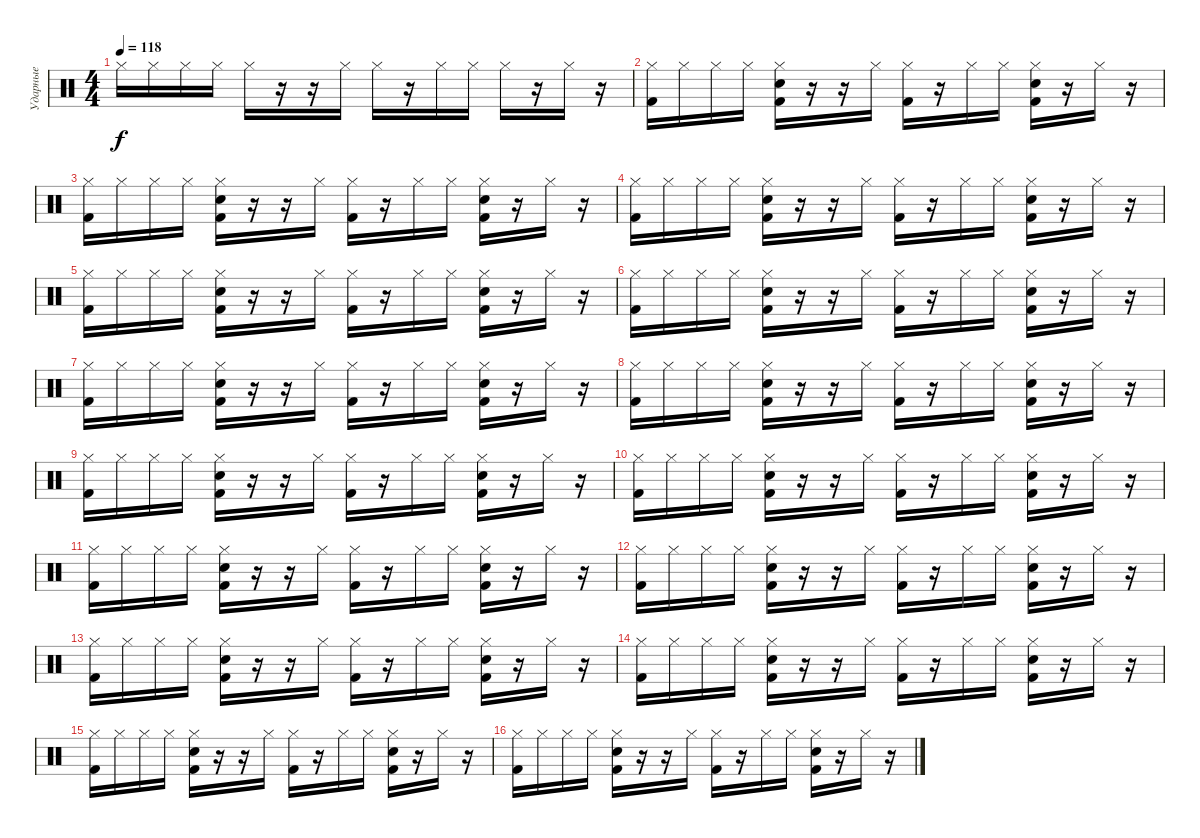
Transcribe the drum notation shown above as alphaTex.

\track ("Ударные" "Ударные") {instrument percussion}
\staff {score}
\articulation defaults
\ts (4 4)
\tempo 118
\clef neutral
\ks c "Hi-Hat (closed)".16{dy f} "Hi-Hat (closed)".16 "Hi-Hat (closed)".16 "Hi-Hat (closed)".16 "Hi-Hat (closed)".16
r.16 r.16 "Hi-Hat (closed)".16 "Hi-Hat (closed)".16 r.16 "Hi-Hat (closed)".16 "Hi-Hat (closed)".16 "Hi-Hat (closed)".16 r.16 "Hi-Hat (closed)".16 r.16 |
("Hi-Hat (closed)" "Kick (hit) 2").16 "Hi-Hat (closed)".16 "Hi-Hat (closed)".16 "Hi-Hat (closed)".16 ("Hi-Hat (closed)" "Kick (hit) 2" "Snare (hit) 2").16 r.16 r.16 "Hi-Hat (closed)".16 ("Hi-Hat (closed)" "Kick (hit) 2").16 r.16 "Hi-Hat (closed)".16 "Hi-Hat (closed)".16 ("Hi-Hat (closed)" "Kick (hit) 2" "Snare (hit) 2").16 r.16 "Hi-Hat (closed)".16 r.16 |
("Hi-Hat (closed)" "Kick (hit) 2").16 "Hi-Hat (closed)".16 "Hi-Hat (closed)".16 "Hi-Hat (closed)".16 ("Hi-Hat (closed)" "Kick (hit) 2" "Snare (hit) 2").16 r.16 r.16 "Hi-Hat (closed)".16 ("Hi-Hat (closed)" "Kick (hit) 2").16 r.16 "Hi-Hat (closed)".16 "Hi-Hat (closed)".16 ("Hi-Hat (closed)" "Kick (hit) 2" "Snare (hit) 2").16 r.16 "Hi-Hat (closed)".16 r.16 |
("Hi-Hat (closed)" "Kick (hit) 2").16 "Hi-Hat (closed)".16 "Hi-Hat (closed)".16 "Hi-Hat (closed)".16 ("Hi-Hat (closed)" "Kick (hit) 2" "Snare (hit) 2").16 r.16 r.16 "Hi-Hat (closed)".16 ("Hi-Hat (closed)" "Kick (hit) 2").16 r.16 "Hi-Hat (closed)".16 "Hi-Hat (closed)".16 ("Hi-Hat (closed)" "Kick (hit) 2" "Snare (hit) 2").16 r.16 "Hi-Hat (closed)".16 r.16 |
("Hi-Hat (closed)" "Kick (hit) 2").16 "Hi-Hat (closed)".16 "Hi-Hat (closed)".16 "Hi-Hat (closed)".16 ("Hi-Hat (closed)" "Kick (hit) 2" "Snare (hit) 2").16 r.16 r.16 "Hi-Hat (closed)".16 ("Hi-Hat (closed)" "Kick (hit) 2").16 r.16 "Hi-Hat (closed)".16 "Hi-Hat (closed)".16 ("Hi-Hat (closed)" "Kick (hit) 2" "Snare (hit) 2").16 r.16 "Hi-Hat (closed)".16 r.16 |
("Hi-Hat (closed)" "Kick (hit) 2").16 "Hi-Hat (closed)".16 "Hi-Hat (closed)".16 "Hi-Hat (closed)".16 ("Hi-Hat (closed)" "Kick (hit) 2" "Snare (hit) 2").16 r.16 r.16 "Hi-Hat (closed)".16 ("Hi-Hat (closed)" "Kick (hit) 2").16 r.16 "Hi-Hat (closed)".16 "Hi-Hat (closed)".16 ("Hi-Hat (closed)" "Kick (hit) 2" "Snare (hit) 2").16 r.16 "Hi-Hat (closed)".16 r.16 |
("Hi-Hat (closed)" "Kick (hit) 2").16 "Hi-Hat (closed)".16 "Hi-Hat (closed)".16 "Hi-Hat (closed)".16 ("Hi-Hat (closed)" "Kick (hit) 2" "Snare (hit) 2").16 r.16 r.16 "Hi-Hat (closed)".16 ("Hi-Hat (closed)" "Kick (hit) 2").16 r.16 "Hi-Hat (closed)".16 "Hi-Hat (closed)".16 ("Hi-Hat (closed)" "Kick (hit) 2" "Snare (hit) 2").16 r.16 "Hi-Hat (closed)".16 r.16 |
("Hi-Hat (closed)" "Kick (hit) 2").16 "Hi-Hat (closed)".16 "Hi-Hat (closed)".16 "Hi-Hat (closed)".16 ("Hi-Hat (closed)" "Kick (hit) 2" "Snare (hit) 2").16 r.16 r.16 "Hi-Hat (closed)".16 ("Hi-Hat (closed)" "Kick (hit) 2").16 r.16 "Hi-Hat (closed)".16 "Hi-Hat (closed)".16 ("Hi-Hat (closed)" "Kick (hit) 2" "Snare (hit) 2").16 r.16 "Hi-Hat (closed)".16 r.16 |
("Hi-Hat (closed)" "Kick (hit) 2").16 "Hi-Hat (closed)".16 "Hi-Hat (closed)".16 "Hi-Hat (closed)".16 ("Hi-Hat (closed)" "Kick (hit) 2" "Snare (hit) 2").16 r.16 r.16 "Hi-Hat (closed)".16 ("Hi-Hat (closed)" "Kick (hit) 2").16 r.16 "Hi-Hat (closed)".16 "Hi-Hat (closed)".16 ("Hi-Hat (closed)" "Kick (hit) 2" "Snare (hit) 2").16 r.16 "Hi-Hat (closed)".16 r.16 |
("Hi-Hat (closed)" "Kick (hit) 2").16 "Hi-Hat (closed)".16 "Hi-Hat (closed)".16 "Hi-Hat (closed)".16 ("Hi-Hat (closed)" "Kick (hit) 2" "Snare (hit) 2").16 r.16 r.16 "Hi-Hat (closed)".16 ("Hi-Hat (closed)" "Kick (hit) 2").16 r.16 "Hi-Hat (closed)".16 "Hi-Hat (closed)".16 ("Hi-Hat (closed)" "Kick (hit) 2" "Snare (hit) 2").16 r.16 "Hi-Hat (closed)".16 r.16 |
("Hi-Hat (closed)" "Kick (hit) 2").16 "Hi-Hat (closed)".16 "Hi-Hat (closed)".16 "Hi-Hat (closed)".16 ("Hi-Hat (closed)" "Kick (hit) 2" "Snare (hit) 2").16 r.16 r.16 "Hi-Hat (closed)".16 ("Hi-Hat (closed)" "Kick (hit) 2").16 r.16 "Hi-Hat (closed)".16 "Hi-Hat (closed)".16 ("Hi-Hat (closed)" "Kick (hit) 2" "Snare (hit) 2").16 r.16 "Hi-Hat (closed)".16 r.16 |
("Hi-Hat (closed)" "Kick (hit) 2").16 "Hi-Hat (closed)".16 "Hi-Hat (closed)".16 "Hi-Hat (closed)".16 ("Hi-Hat (closed)" "Kick (hit) 2" "Snare (hit) 2").16 r.16 r.16 "Hi-Hat (closed)".16 ("Hi-Hat (closed)" "Kick (hit) 2").16 r.16 "Hi-Hat (closed)".16 "Hi-Hat (closed)".16 ("Hi-Hat (closed)" "Kick (hit) 2" "Snare (hit) 2").16 r.16 "Hi-Hat (closed)".16 r.16 |
("Hi-Hat (closed)" "Kick (hit) 2").16 "Hi-Hat (closed)".16 "Hi-Hat (closed)".16 "Hi-Hat (closed)".16 ("Hi-Hat (closed)" "Kick (hit) 2" "Snare (hit) 2").16 r.16 r.16 "Hi-Hat (closed)".16 ("Hi-Hat (closed)" "Kick (hit) 2").16 r.16 "Hi-Hat (closed)".16 "Hi-Hat (closed)".16 ("Hi-Hat (closed)" "Kick (hit) 2" "Snare (hit) 2").16 r.16 "Hi-Hat (closed)".16 r.16 |
("Hi-Hat (closed)" "Kick (hit) 2").16 "Hi-Hat (closed)".16 "Hi-Hat (closed)".16 "Hi-Hat (closed)".16 ("Hi-Hat (closed)" "Kick (hit) 2" "Snare (hit) 2").16 r.16 r.16 "Hi-Hat (closed)".16 ("Hi-Hat (closed)" "Kick (hit) 2").16 r.16 "Hi-Hat (closed)".16 "Hi-Hat (closed)".16 ("Hi-Hat (closed)" "Kick (hit) 2" "Snare (hit) 2").16 r.16 "Hi-Hat (closed)".16 r.16 |
("Hi-Hat (closed)" "Kick (hit) 2").16 "Hi-Hat (closed)".16 "Hi-Hat (closed)".16 "Hi-Hat (closed)".16 ("Hi-Hat (closed)" "Kick (hit) 2" "Snare (hit) 2").16 r.16 r.16 "Hi-Hat (closed)".16 ("Hi-Hat (closed)" "Kick (hit) 2").16 r.16 "Hi-Hat (closed)".16 "Hi-Hat (closed)".16 ("Hi-Hat (closed)" "Kick (hit) 2" "Snare (hit) 2").16 r.16 "Hi-Hat (closed)".16 r.16 |
("Hi-Hat (closed)" "Kick (hit) 2").16 "Hi-Hat (closed)".16 "Hi-Hat (closed)".16 "Hi-Hat (closed)".16 ("Hi-Hat (closed)" "Kick (hit) 2" "Snare (hit) 2").16 r.16 r.16 "Hi-Hat (closed)".16 ("Hi-Hat (closed)" "Kick (hit) 2").16 r.16 "Hi-Hat (closed)".16 "Hi-Hat (closed)".16 ("Hi-Hat (closed)" "Kick (hit) 2" "Snare (hit) 2").16 r.16 "Hi-Hat (closed)".16 r.16
